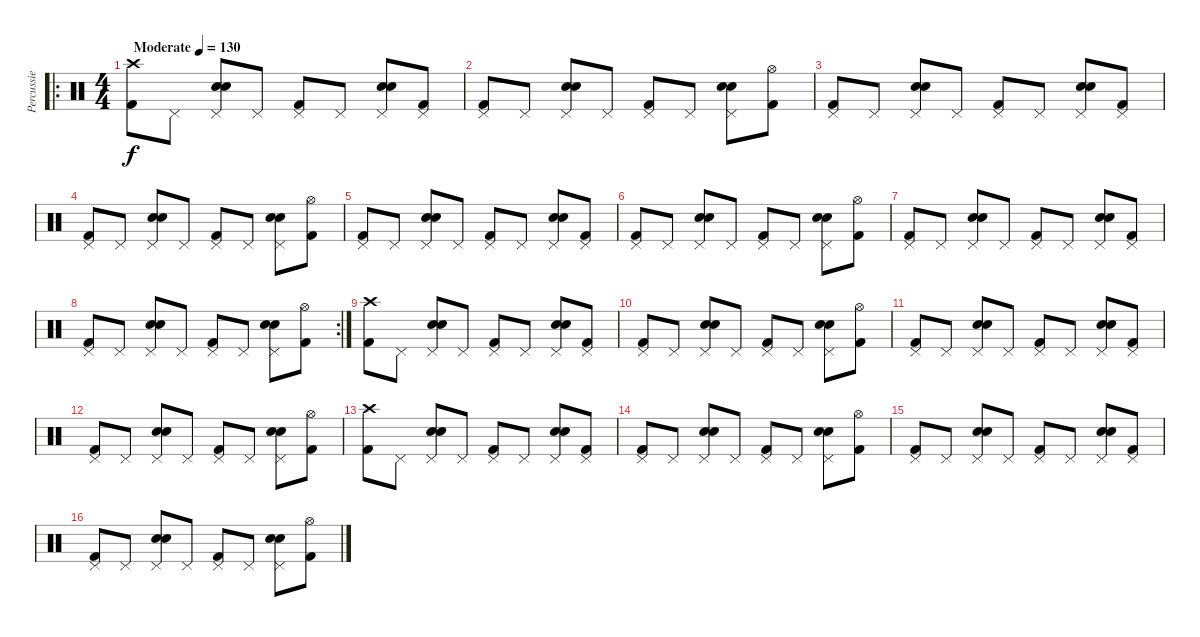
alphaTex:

\track ("Percussie" "Percussie") {instrument percussion}
\staff {score}
\articulation defaults
\ro
\ts (4 4)
\tempo (130 "Moderate")
\clef neutral
\ks c
("Crash high (hit)" "Kick (hit) 2").8{dy f} "Pedal Hi-Hat (hit)".8 ("Pedal Hi-Hat (hit)" "Electric Snare (hit)" "Snare (hit) 2").8 "Pedal Hi-Hat (hit)".8 ("Pedal Hi-Hat (hit)" "Kick (hit) 2").8 "Pedal Hi-Hat (hit)".8 ("Pedal Hi-Hat (hit)" "Electric Snare (hit)" "Snare (hit) 2").8 ("Pedal Hi-Hat (hit)" "Kick (hit) 2").8 |
("Pedal Hi-Hat (hit)" "Kick (hit) 2").8 "Pedal Hi-Hat (hit)".8 ("Pedal Hi-Hat (hit)" "Electric Snare (hit)" "Snare (hit) 2").8 "Pedal Hi-Hat (hit)".8 ("Pedal Hi-Hat (hit)" "Kick (hit) 2").8 "Pedal Hi-Hat (hit)".8 ("Pedal Hi-Hat (hit)" "Electric Snare (hit)" "Snare (hit) 2").8 ("Hi-Hat (open)" "Kick (hit) 2").8 |
("Pedal Hi-Hat (hit)" "Kick (hit) 2").8 "Pedal Hi-Hat (hit)".8 ("Pedal Hi-Hat (hit)" "Electric Snare (hit)" "Snare (hit) 2").8 "Pedal Hi-Hat (hit)".8 ("Pedal Hi-Hat (hit)" "Kick (hit) 2").8 "Pedal Hi-Hat (hit)".8 ("Pedal Hi-Hat (hit)" "Electric Snare (hit)" "Snare (hit) 2").8 ("Pedal Hi-Hat (hit)" "Kick (hit) 2").8 |
("Pedal Hi-Hat (hit)" "Kick (hit) 2").8 "Pedal Hi-Hat (hit)".8 ("Pedal Hi-Hat (hit)" "Electric Snare (hit)" "Snare (hit) 2").8 "Pedal Hi-Hat (hit)".8 ("Pedal Hi-Hat (hit)" "Kick (hit) 2").8 "Pedal Hi-Hat (hit)".8 ("Pedal Hi-Hat (hit)" "Electric Snare (hit)" "Snare (hit) 2").8 ("Hi-Hat (open)" "Kick (hit) 2").8 |
("Pedal Hi-Hat (hit)" "Kick (hit) 2").8 "Pedal Hi-Hat (hit)".8 ("Pedal Hi-Hat (hit)" "Electric Snare (hit)" "Snare (hit) 2").8 "Pedal Hi-Hat (hit)".8 ("Pedal Hi-Hat (hit)" "Kick (hit) 2").8 "Pedal Hi-Hat (hit)".8 ("Pedal Hi-Hat (hit)" "Electric Snare (hit)" "Snare (hit) 2").8 ("Pedal Hi-Hat (hit)" "Kick (hit) 2").8 |
("Pedal Hi-Hat (hit)" "Kick (hit) 2").8 "Pedal Hi-Hat (hit)".8 ("Pedal Hi-Hat (hit)" "Electric Snare (hit)" "Snare (hit) 2").8 "Pedal Hi-Hat (hit)".8 ("Pedal Hi-Hat (hit)" "Kick (hit) 2").8 "Pedal Hi-Hat (hit)".8 ("Pedal Hi-Hat (hit)" "Electric Snare (hit)" "Snare (hit) 2").8 ("Hi-Hat (open)" "Kick (hit) 2").8 |
("Pedal Hi-Hat (hit)" "Kick (hit) 2").8 "Pedal Hi-Hat (hit)".8 ("Pedal Hi-Hat (hit)" "Electric Snare (hit)" "Snare (hit) 2").8 "Pedal Hi-Hat (hit)".8 ("Pedal Hi-Hat (hit)" "Kick (hit) 2").8 "Pedal Hi-Hat (hit)".8 ("Pedal Hi-Hat (hit)" "Electric Snare (hit)" "Snare (hit) 2").8 ("Pedal Hi-Hat (hit)" "Kick (hit) 2").8 |
\rc 2
("Pedal Hi-Hat (hit)" "Kick (hit) 2").8 "Pedal Hi-Hat (hit)".8 ("Pedal Hi-Hat (hit)" "Electric Snare (hit)" "Snare (hit) 2").8 "Pedal Hi-Hat (hit)".8 ("Pedal Hi-Hat (hit)" "Kick (hit) 2").8 "Pedal Hi-Hat (hit)".8 ("Pedal Hi-Hat (hit)" "Electric Snare (hit)" "Snare (hit) 2").8 ("Hi-Hat (open)" "Kick (hit) 2").8 |
("Crash high (hit)" "Kick (hit) 2").8 "Pedal Hi-Hat (hit)".8 ("Pedal Hi-Hat (hit)" "Electric Snare (hit)" "Snare (hit) 2").8 "Pedal Hi-Hat (hit)".8 ("Pedal Hi-Hat (hit)" "Kick (hit) 2").8 "Pedal Hi-Hat (hit)".8 ("Pedal Hi-Hat (hit)" "Electric Snare (hit)" "Snare (hit) 2").8 ("Pedal Hi-Hat (hit)" "Kick (hit) 2").8 |
("Pedal Hi-Hat (hit)" "Kick (hit) 2").8 "Pedal Hi-Hat (hit)".8 ("Pedal Hi-Hat (hit)" "Electric Snare (hit)" "Snare (hit) 2").8 "Pedal Hi-Hat (hit)".8 ("Pedal Hi-Hat (hit)" "Kick (hit) 2").8 "Pedal Hi-Hat (hit)".8 ("Pedal Hi-Hat (hit)" "Electric Snare (hit)" "Snare (hit) 2").8 ("Hi-Hat (open)" "Kick (hit) 2").8 |
("Pedal Hi-Hat (hit)" "Kick (hit) 2").8 "Pedal Hi-Hat (hit)".8 ("Pedal Hi-Hat (hit)" "Electric Snare (hit)" "Snare (hit) 2").8 "Pedal Hi-Hat (hit)".8 ("Pedal Hi-Hat (hit)" "Kick (hit) 2").8 "Pedal Hi-Hat (hit)".8 ("Pedal Hi-Hat (hit)" "Electric Snare (hit)" "Snare (hit) 2").8 ("Pedal Hi-Hat (hit)" "Kick (hit) 2").8 |
("Pedal Hi-Hat (hit)" "Kick (hit) 2").8 "Pedal Hi-Hat (hit)".8 ("Pedal Hi-Hat (hit)" "Electric Snare (hit)" "Snare (hit) 2").8 "Pedal Hi-Hat (hit)".8 ("Pedal Hi-Hat (hit)" "Kick (hit) 2").8 "Pedal Hi-Hat (hit)".8 ("Pedal Hi-Hat (hit)" "Electric Snare (hit)" "Snare (hit) 2").8 ("Hi-Hat (open)" "Kick (hit) 2").8 |
("Crash high (hit)" "Kick (hit) 2").8 "Pedal Hi-Hat (hit)".8 ("Pedal Hi-Hat (hit)" "Electric Snare (hit)" "Snare (hit) 2").8 "Pedal Hi-Hat (hit)".8 ("Pedal Hi-Hat (hit)" "Kick (hit) 2").8 "Pedal Hi-Hat (hit)".8 ("Pedal Hi-Hat (hit)" "Electric Snare (hit)" "Snare (hit) 2").8 ("Pedal Hi-Hat (hit)" "Kick (hit) 2").8 |
("Pedal Hi-Hat (hit)" "Kick (hit) 2").8 "Pedal Hi-Hat (hit)".8 ("Pedal Hi-Hat (hit)" "Electric Snare (hit)" "Snare (hit) 2").8 "Pedal Hi-Hat (hit)".8 ("Pedal Hi-Hat (hit)" "Kick (hit) 2").8 "Pedal Hi-Hat (hit)".8 ("Pedal Hi-Hat (hit)" "Electric Snare (hit)" "Snare (hit) 2").8 ("Hi-Hat (open)" "Kick (hit) 2").8 |
("Pedal Hi-Hat (hit)" "Kick (hit) 2").8 "Pedal Hi-Hat (hit)".8 ("Pedal Hi-Hat (hit)" "Electric Snare (hit)" "Snare (hit) 2").8 "Pedal Hi-Hat (hit)".8 ("Pedal Hi-Hat (hit)" "Kick (hit) 2").8 "Pedal Hi-Hat (hit)".8 ("Pedal Hi-Hat (hit)" "Electric Snare (hit)" "Snare (hit) 2").8 ("Pedal Hi-Hat (hit)" "Kick (hit) 2").8 |
("Pedal Hi-Hat (hit)" "Kick (hit) 2").8 "Pedal Hi-Hat (hit)".8 ("Pedal Hi-Hat (hit)" "Electric Snare (hit)" "Snare (hit) 2").8 "Pedal Hi-Hat (hit)".8 ("Pedal Hi-Hat (hit)" "Kick (hit) 2").8 "Pedal Hi-Hat (hit)".8 ("Pedal Hi-Hat (hit)" "Electric Snare (hit)" "Snare (hit) 2").8 ("Hi-Hat (open)" "Kick (hit) 2").8
